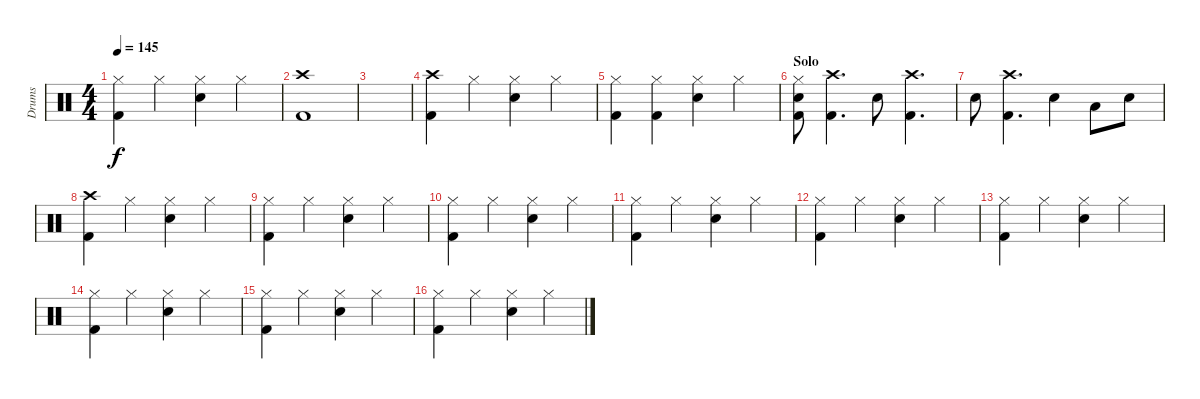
\track ("Drums" "Drums") {instrument percussion}
\staff {score}
\articulation defaults
\ts (4 4)
\tempo 145
\clef neutral
\ks c
("Hi-Hat (closed)" "Kick (hit) 2").4{dy f} "Hi-Hat (closed)".4 ("Hi-Hat (closed)" "Electric Snare (hit)").4 "Hi-Hat (closed)".4 |
("Crash high (hit)" "Kick (hit) 2").1 |
|
("Crash high (hit)" "Kick (hit) 2").4 "Hi-Hat (closed)".4 ("Hi-Hat (closed)" "Electric Snare (hit)").4 "Hi-Hat (closed)".4 |
("Hi-Hat (closed)" "Kick (hit) 2").4 ("Hi-Hat (closed)" "Kick (hit) 2").4 ("Hi-Hat (closed)" "Electric Snare (hit)").4 "Hi-Hat (closed)".4 |
\section ("" "Solo")
("Hi-Hat (closed)" "Electric Snare (hit)" "Kick (hit) 2").8 ("Crash high (hit)" "Kick (hit) 2").4{d} "Electric Snare (hit)".8 ("Crash high (hit)" "Kick (hit) 2").4{d} |
"Electric Snare (hit)".8 ("Crash high (hit)" "Kick (hit) 2").4{d} "Electric Snare (hit)".4 "Low Tom (hit)".8 "Electric Snare (hit)".8 |
("Crash high (hit)" "Kick (hit) 2").4 "Hi-Hat (closed)".4 ("Hi-Hat (closed)" "Electric Snare (hit)").4 "Hi-Hat (closed)".4 |
("Hi-Hat (closed)" "Kick (hit) 2").4 "Hi-Hat (closed)".4 ("Hi-Hat (closed)" "Electric Snare (hit)").4 "Hi-Hat (closed)".4 |
("Hi-Hat (closed)" "Kick (hit) 2").4 "Hi-Hat (closed)".4 ("Hi-Hat (closed)" "Electric Snare (hit)").4 "Hi-Hat (closed)".4 |
("Hi-Hat (closed)" "Kick (hit) 2").4 "Hi-Hat (closed)".4 ("Hi-Hat (closed)" "Electric Snare (hit)").4 "Hi-Hat (closed)".4 |
("Hi-Hat (closed)" "Kick (hit) 2").4 "Hi-Hat (closed)".4 ("Hi-Hat (closed)" "Electric Snare (hit)").4 "Hi-Hat (closed)".4 |
("Hi-Hat (closed)" "Kick (hit) 2").4 "Hi-Hat (closed)".4 ("Hi-Hat (closed)" "Electric Snare (hit)").4 "Hi-Hat (closed)".4 |
("Hi-Hat (closed)" "Kick (hit) 2").4 "Hi-Hat (closed)".4 ("Hi-Hat (closed)" "Electric Snare (hit)").4 "Hi-Hat (closed)".4 |
("Hi-Hat (closed)" "Kick (hit) 2").4 "Hi-Hat (closed)".4 ("Hi-Hat (closed)" "Electric Snare (hit)").4 "Hi-Hat (closed)".4 |
("Hi-Hat (closed)" "Kick (hit) 2").4 "Hi-Hat (closed)".4 ("Hi-Hat (closed)" "Electric Snare (hit)").4 "Hi-Hat (closed)".4
